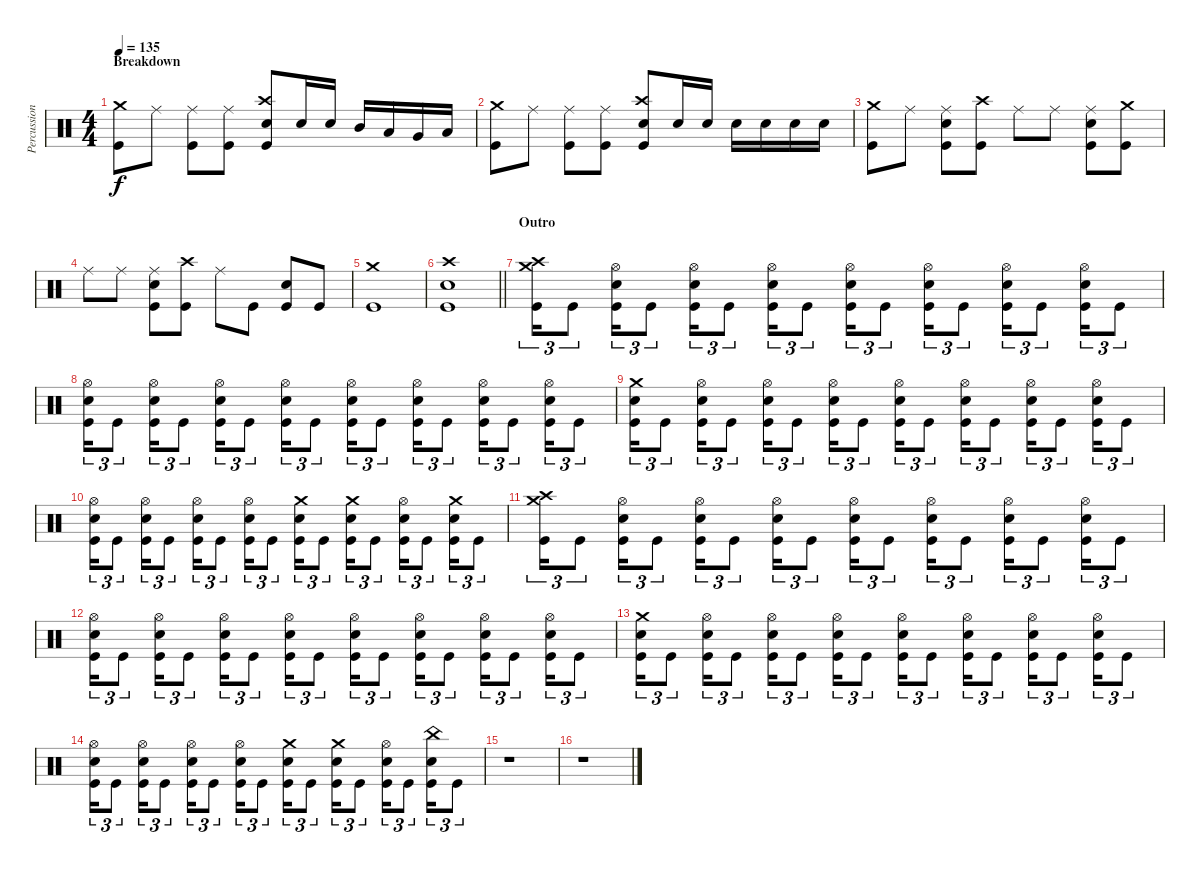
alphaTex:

\track ("Percussion" "Percussion") {instrument percussion}
\staff {score}
\articulation defaults
\ts (4 4)
\section ("" "Breakdown")
\tempo 135
\clef neutral
\ks c
("Crash medium (hit)" "Kick (hit)").8{dy f} "Ride (middle)".8 ("Ride (middle)" "Kick (hit)").8 ("Ride (middle)" "Kick (hit)").8 ("Crash high (hit)" "Electric Snare (hit)" "Kick (hit)").8 "Electric Snare (hit)".16 "Electric Snare (hit)".16 "Mid Tom (hit)".16 "Low Tom (hit)".16 "Very Low Tom (hit)".16 "Low Floor Tom (hit)".16 |
("Crash medium (hit)" "Kick (hit)").8 "Ride (middle)".8 ("Ride (middle)" "Kick (hit)").8 ("Ride (middle)" "Kick (hit)").8 ("Crash high (hit)" "Electric Snare (hit)" "Kick (hit)").8 "Electric Snare (hit)".16 "Electric Snare (hit)".16 "Electric Snare (hit)".16 "Electric Snare (hit)".16 "Electric Snare (hit)".16 "Electric Snare (hit)".16 |
("Crash medium (hit)" "Kick (hit)").8 "Ride (middle)".8 ("Ride (middle)" "Electric Snare (hit)" "Kick (hit)").8 ("Crash high (hit)" "Kick (hit)").8 "Ride (middle)".8 "Ride (middle)".8 ("Ride (middle)" "Electric Snare (hit)" "Kick (hit)").8 ("Crash medium (hit)" "Kick (hit)").8 |
"Ride (middle)".8 "Ride (middle)".8 ("Ride (middle)" "Electric Snare (hit)" "Kick (hit)").8 ("Crash high (hit)" "Kick (hit)").8 "Ride (middle)".8 "Kick (hit)".8 ("Electric Snare (hit)" "Kick (hit)").8 "Kick (hit)".8 |
("Crash medium (hit)" "Kick (hit)").1 |
\barLineRight lightlight
("Crash high (hit)" "Electric Snare (hit)" "Kick (hit)").1 |
\section ("" "Outro")
("Crash high (hit)" "Crash medium (hit)" "Kick (hit)").16{tu (3 2)} "Kick (hit)".8{tu (3 2)} ("Hi-Hat (open)" "Electric Snare (hit)" "Kick (hit)").16{tu (3 2)} "Kick (hit)".8{tu (3 2)} ("Hi-Hat (open)" "Electric Snare (hit)" "Kick (hit)").16{tu (3 2)} "Kick (hit)".8{tu (3 2)} ("Hi-Hat (open)" "Electric Snare (hit)" "Kick (hit)").16{tu (3 2)} "Kick (hit)".8{tu (3 2)} ("Hi-Hat (open)" "Electric Snare (hit)" "Kick (hit)").16{tu (3 2)} "Kick (hit)".8{tu (3 2)} ("Hi-Hat (open)" "Electric Snare (hit)" "Kick (hit)").16{tu (3 2)} "Kick (hit)".8{tu (3 2)} ("Hi-Hat (open)" "Electric Snare (hit)" "Kick (hit)").16{tu (3 2)} "Kick (hit)".8{tu (3 2)} ("Hi-Hat (open)" "Electric Snare (hit)" "Kick (hit)").16{tu (3 2)} "Kick (hit)".8{tu (3 2)} |
("Hi-Hat (open)" "Electric Snare (hit)" "Kick (hit)").16{tu (3 2)} "Kick (hit)".8{tu (3 2)} ("Hi-Hat (open)" "Electric Snare (hit)" "Kick (hit)").16{tu (3 2)} "Kick (hit)".8{tu (3 2)} ("Hi-Hat (open)" "Electric Snare (hit)" "Kick (hit)").16{tu (3 2)} "Kick (hit)".8{tu (3 2)} ("Hi-Hat (open)" "Electric Snare (hit)" "Kick (hit)").16{tu (3 2)} "Kick (hit)".8{tu (3 2)} ("Hi-Hat (open)" "Electric Snare (hit)" "Kick (hit)").16{tu (3 2)} "Kick (hit)".8{tu (3 2)} ("Hi-Hat (open)" "Electric Snare (hit)" "Kick (hit)").16{tu (3 2)} "Kick (hit)".8{tu (3 2)} ("Hi-Hat (open)" "Electric Snare (hit)" "Kick (hit)").16{tu (3 2)} "Kick (hit)".8{tu (3 2)} ("Hi-Hat (open)" "Electric Snare (hit)" "Kick (hit)").16{tu (3 2)} "Kick (hit)".8{tu (3 2)} |
("Crash medium (hit)" "Electric Snare (hit)" "Kick (hit)").16{tu (3 2)} "Kick (hit)".8{tu (3 2)} ("Hi-Hat (open)" "Electric Snare (hit)" "Kick (hit)").16{tu (3 2)} "Kick (hit)".8{tu (3 2)} ("Hi-Hat (open)" "Electric Snare (hit)" "Kick (hit)").16{tu (3 2)} "Kick (hit)".8{tu (3 2)} ("Hi-Hat (open)" "Electric Snare (hit)" "Kick (hit)").16{tu (3 2)} "Kick (hit)".8{tu (3 2)} ("Hi-Hat (open)" "Electric Snare (hit)" "Kick (hit)").16{tu (3 2)} "Kick (hit)".8{tu (3 2)} ("Hi-Hat (open)" "Electric Snare (hit)" "Kick (hit)").16{tu (3 2)} "Kick (hit)".8{tu (3 2)} ("Hi-Hat (open)" "Electric Snare (hit)" "Kick (hit)").16{tu (3 2)} "Kick (hit)".8{tu (3 2)} ("Hi-Hat (open)" "Electric Snare (hit)" "Kick (hit)").16{tu (3 2)} "Kick (hit)".8{tu (3 2)} |
("Hi-Hat (open)" "Electric Snare (hit)" "Kick (hit)").16{tu (3 2)} "Kick (hit)".8{tu (3 2)} ("Hi-Hat (open)" "Electric Snare (hit)" "Kick (hit)").16{tu (3 2)} "Kick (hit)".8{tu (3 2)} ("Hi-Hat (open)" "Electric Snare (hit)" "Kick (hit)").16{tu (3 2)} "Kick (hit)".8{tu (3 2)} ("Hi-Hat (open)" "Electric Snare (hit)" "Kick (hit)").16{tu (3 2)} "Kick (hit)".8{tu (3 2)} ("Crash medium (hit)" "Electric Snare (hit)" "Kick (hit)").16{tu (3 2)} "Kick (hit)".8{tu (3 2)} ("Crash medium (hit)" "Electric Snare (hit)" "Kick (hit)").16{tu (3 2)} "Kick (hit)".8{tu (3 2)} ("Hi-Hat (open)" "Electric Snare (hit)" "Kick (hit)").16{tu (3 2)} "Kick (hit)".8{tu (3 2)} ("Crash medium (hit)" "Electric Snare (hit)" "Kick (hit)").16{tu (3 2)} "Kick (hit)".8{tu (3 2)} |
("Crash high (hit)" "Crash medium (hit)" "Kick (hit)").16{tu (3 2)} "Kick (hit)".8{tu (3 2)} ("Hi-Hat (open)" "Electric Snare (hit)" "Kick (hit)").16{tu (3 2)} "Kick (hit)".8{tu (3 2)} ("Hi-Hat (open)" "Electric Snare (hit)" "Kick (hit)").16{tu (3 2)} "Kick (hit)".8{tu (3 2)} ("Hi-Hat (open)" "Electric Snare (hit)" "Kick (hit)").16{tu (3 2)} "Kick (hit)".8{tu (3 2)} ("Hi-Hat (open)" "Electric Snare (hit)" "Kick (hit)").16{tu (3 2)} "Kick (hit)".8{tu (3 2)} ("Hi-Hat (open)" "Electric Snare (hit)" "Kick (hit)").16{tu (3 2)} "Kick (hit)".8{tu (3 2)} ("Hi-Hat (open)" "Electric Snare (hit)" "Kick (hit)").16{tu (3 2)} "Kick (hit)".8{tu (3 2)} ("Hi-Hat (open)" "Electric Snare (hit)" "Kick (hit)").16{tu (3 2)} "Kick (hit)".8{tu (3 2)} |
("Hi-Hat (open)" "Electric Snare (hit)" "Kick (hit)").16{tu (3 2)} "Kick (hit)".8{tu (3 2)} ("Hi-Hat (open)" "Electric Snare (hit)" "Kick (hit)").16{tu (3 2)} "Kick (hit)".8{tu (3 2)} ("Hi-Hat (open)" "Electric Snare (hit)" "Kick (hit)").16{tu (3 2)} "Kick (hit)".8{tu (3 2)} ("Hi-Hat (open)" "Electric Snare (hit)" "Kick (hit)").16{tu (3 2)} "Kick (hit)".8{tu (3 2)} ("Hi-Hat (open)" "Electric Snare (hit)" "Kick (hit)").16{tu (3 2)} "Kick (hit)".8{tu (3 2)} ("Hi-Hat (open)" "Electric Snare (hit)" "Kick (hit)").16{tu (3 2)} "Kick (hit)".8{tu (3 2)} ("Hi-Hat (open)" "Electric Snare (hit)" "Kick (hit)").16{tu (3 2)} "Kick (hit)".8{tu (3 2)} ("Hi-Hat (open)" "Electric Snare (hit)" "Kick (hit)").16{tu (3 2)} "Kick (hit)".8{tu (3 2)} |
("Crash medium (hit)" "Electric Snare (hit)" "Kick (hit)").16{tu (3 2)} "Kick (hit)".8{tu (3 2)} ("Hi-Hat (open)" "Electric Snare (hit)" "Kick (hit)").16{tu (3 2)} "Kick (hit)".8{tu (3 2)} ("Hi-Hat (open)" "Electric Snare (hit)" "Kick (hit)").16{tu (3 2)} "Kick (hit)".8{tu (3 2)} ("Hi-Hat (open)" "Electric Snare (hit)" "Kick (hit)").16{tu (3 2)} "Kick (hit)".8{tu (3 2)} ("Hi-Hat (open)" "Electric Snare (hit)" "Kick (hit)").16{tu (3 2)} "Kick (hit)".8{tu (3 2)} ("Hi-Hat (open)" "Electric Snare (hit)" "Kick (hit)").16{tu (3 2)} "Kick (hit)".8{tu (3 2)} ("Hi-Hat (open)" "Electric Snare (hit)" "Kick (hit)").16{tu (3 2)} "Kick (hit)".8{tu (3 2)} ("Hi-Hat (open)" "Electric Snare (hit)" "Kick (hit)").16{tu (3 2)} "Kick (hit)".8{tu (3 2)} |
("Hi-Hat (open)" "Electric Snare (hit)" "Kick (hit)").16{tu (3 2)} "Kick (hit)".8{tu (3 2)} ("Hi-Hat (open)" "Electric Snare (hit)" "Kick (hit)").16{tu (3 2)} "Kick (hit)".8{tu (3 2)} ("Hi-Hat (open)" "Electric Snare (hit)" "Kick (hit)").16{tu (3 2)} "Kick (hit)".8{tu (3 2)} ("Hi-Hat (open)" "Electric Snare (hit)" "Kick (hit)").16{tu (3 2)} "Kick (hit)".8{tu (3 2)} ("Crash medium (hit)" "Electric Snare (hit)" "Kick (hit)").16{tu (3 2)} "Kick (hit)".8{tu (3 2)} ("Crash medium (hit)" "Electric Snare (hit)" "Kick (hit)").16{tu (3 2)} "Kick (hit)".8{tu (3 2)} ("Hi-Hat (open)" "Electric Snare (hit)" "Kick (hit)").16{tu (3 2)} "Kick (hit)".8{tu (3 2)} ("China (hit)" "Electric Snare (hit)" "Kick (hit)").16{tu (3 2)} "Kick (hit)".8{tu (3 2)} |
r.1 |
r.1
